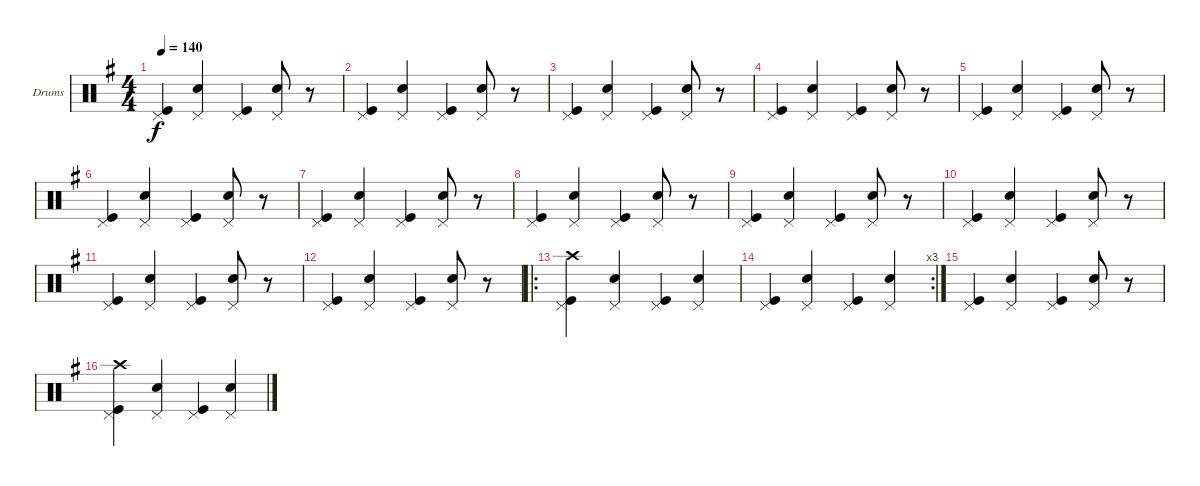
\bracketExtendMode groupsimilarinstruments
\firstSystemTrackNameOrientation horizontal
\otherSystemsTrackNameOrientation horizontal
\track ("Drumkit" "Drums") {instrument percussion}
\staff {score}
\articulation defaults
\ts (4 4)
\tempo 140
\clef neutral
\scale
1.04288
\ks g
("Kick (hit)" "Pedal Hi-Hat (hit)").4{dy f} ("Snare (hit) 2" "Pedal Hi-Hat (hit)").4 ("Kick (hit)" "Pedal Hi-Hat (hit)").4 ("Snare (hit) 2" "Pedal Hi-Hat (hit)").8 r.8 |
\scale
0.957125 ("Kick (hit)" "Pedal Hi-Hat (hit)").4 ("Snare (hit) 2" "Pedal Hi-Hat (hit)").4 ("Kick (hit)" "Pedal Hi-Hat (hit)").4 ("Snare (hit) 2" "Pedal Hi-Hat (hit)").8 r.8 |
\scale
1.04288 ("Kick (hit)" "Pedal Hi-Hat (hit)").4 ("Snare (hit) 2" "Pedal Hi-Hat (hit)").4 ("Kick (hit)" "Pedal Hi-Hat (hit)").4 ("Snare (hit) 2" "Pedal Hi-Hat (hit)").8 r.8 |
\scale
0.957125 ("Kick (hit)" "Pedal Hi-Hat (hit)").4 ("Snare (hit) 2" "Pedal Hi-Hat (hit)").4 ("Kick (hit)" "Pedal Hi-Hat (hit)").4 ("Snare (hit) 2" "Pedal Hi-Hat (hit)").8 r.8 |
\scale
1.04288 ("Kick (hit)" "Pedal Hi-Hat (hit)").4 ("Snare (hit) 2" "Pedal Hi-Hat (hit)").4 ("Kick (hit)" "Pedal Hi-Hat (hit)").4 ("Snare (hit) 2" "Pedal Hi-Hat (hit)").8 r.8 |
\scale
0.957125 ("Kick (hit)" "Pedal Hi-Hat (hit)").4 ("Snare (hit) 2" "Pedal Hi-Hat (hit)").4 ("Kick (hit)" "Pedal Hi-Hat (hit)").4 ("Snare (hit) 2" "Pedal Hi-Hat (hit)").8 r.8 |
\scale
1.04288 ("Kick (hit)" "Pedal Hi-Hat (hit)").4 ("Snare (hit) 2" "Pedal Hi-Hat (hit)").4 ("Kick (hit)" "Pedal Hi-Hat (hit)").4 ("Snare (hit) 2" "Pedal Hi-Hat (hit)").8 r.8 |
\scale
0.957125 ("Kick (hit)" "Pedal Hi-Hat (hit)").4 ("Snare (hit) 2" "Pedal Hi-Hat (hit)").4 ("Kick (hit)" "Pedal Hi-Hat (hit)").4 ("Snare (hit) 2" "Pedal Hi-Hat (hit)").8 r.8 |
\scale
1.04288 ("Kick (hit)" "Pedal Hi-Hat (hit)").4 ("Snare (hit) 2" "Pedal Hi-Hat (hit)").4 ("Kick (hit)" "Pedal Hi-Hat (hit)").4 ("Snare (hit) 2" "Pedal Hi-Hat (hit)").8 r.8 |
\scale
0.957125 ("Kick (hit)" "Pedal Hi-Hat (hit)").4 ("Snare (hit) 2" "Pedal Hi-Hat (hit)").4 ("Kick (hit)" "Pedal Hi-Hat (hit)").4 ("Snare (hit) 2" "Pedal Hi-Hat (hit)").8 r.8 |
\scale
1.04288 ("Kick (hit)" "Pedal Hi-Hat (hit)").4 ("Snare (hit) 2" "Pedal Hi-Hat (hit)").4 ("Kick (hit)" "Pedal Hi-Hat (hit)").4 ("Snare (hit) 2" "Pedal Hi-Hat (hit)").8 r.8 |
\scale
0.957125 ("Kick (hit)" "Pedal Hi-Hat (hit)").4 ("Snare (hit) 2" "Pedal Hi-Hat (hit)").4 ("Kick (hit)" "Pedal Hi-Hat (hit)").4 ("Snare (hit) 2" "Pedal Hi-Hat (hit)").8 r.8 |
\ro
\scale
1.04288 ("Kick (hit)" "Pedal Hi-Hat (hit)" "Crash high (hit)").4 ("Snare (hit) 2" "Pedal Hi-Hat (hit)").4 ("Kick (hit)" "Pedal Hi-Hat (hit)").4 ("Snare (hit) 2" "Pedal Hi-Hat (hit)").4 |
\rc 3
\scale
0.957125 ("Kick (hit)" "Pedal Hi-Hat (hit)").4 ("Snare (hit) 2" "Pedal Hi-Hat (hit)").4 ("Kick (hit)" "Pedal Hi-Hat (hit)").4 ("Snare (hit) 2" "Pedal Hi-Hat (hit)").4 |
\scale
1.04288 ("Kick (hit)" "Pedal Hi-Hat (hit)").4 ("Snare (hit) 2" "Pedal Hi-Hat (hit)").4 ("Kick (hit)" "Pedal Hi-Hat (hit)").4 ("Snare (hit) 2" "Pedal Hi-Hat (hit)").8 r.8 |
\scale
0.957125 ("Kick (hit)" "Pedal Hi-Hat (hit)" "Crash high (hit)").4 ("Snare (hit) 2" "Pedal Hi-Hat (hit)").4 ("Kick (hit)" "Pedal Hi-Hat (hit)").4 ("Snare (hit) 2" "Pedal Hi-Hat (hit)").4
